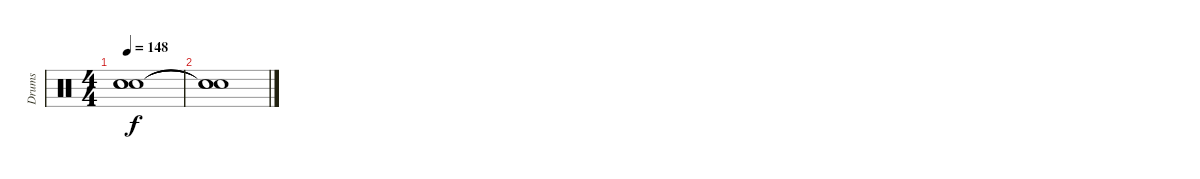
\track ("Drums" "Drums") {instrument percussion}
\staff {score}
\articulation defaults
\ts (4 4)
\tempo 148
\clef neutral
\ks c
("Snare (hit)"{t} "Snare (hit)"{t} "Snare (hit)"{t}).1{dy f} |
("Snare (hit)"{t} "Snare (hit)"{t} "Snare (hit)"{t}).1
